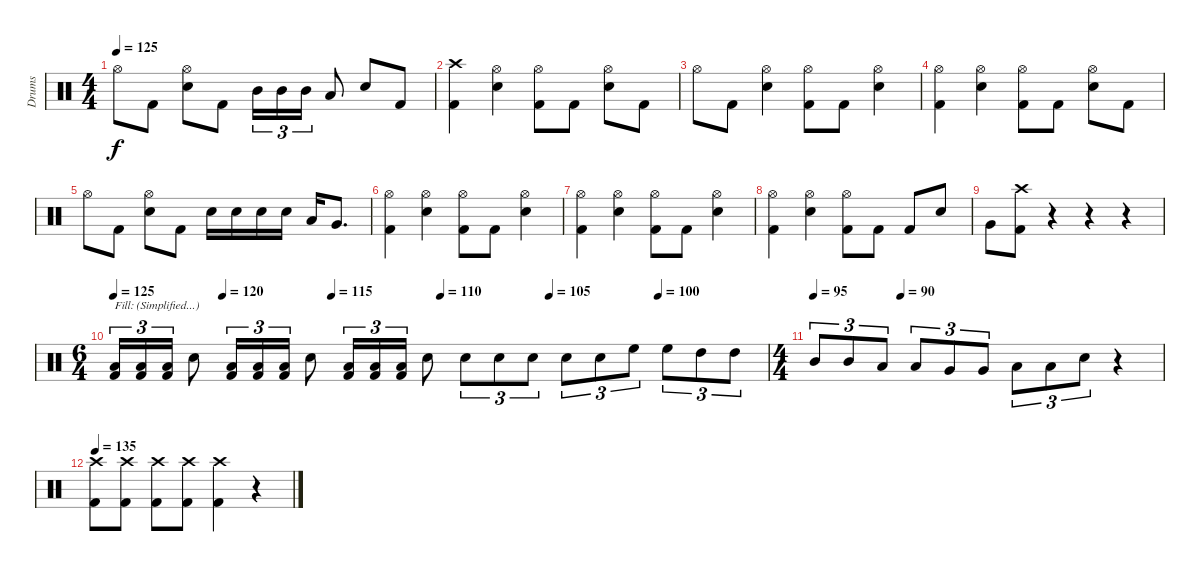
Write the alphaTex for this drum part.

\track ("Drums" "Drums") {instrument percussion}
\staff {score}
\articulation defaults
\ts (4 4)
\tempo 125
\clef neutral
\ks c "Hi-Hat (open)".8{dy f} "Kick (hit) 2".8
("Hi-Hat (open)" "Electric Snare (hit)").8 "Kick (hit) 2".8 "Mid Tom (hit)".16{tu (3 2)} "Mid Tom (hit)".16{tu (3 2)} "Mid Tom (hit)".16{tu (3 2)} "Low Tom (hit)".8 "Electric Snare (hit)".8 "Kick (hit) 2".8 |
("Crash high (hit)" "Kick (hit) 2").4 ("Hi-Hat (open)" "Electric Snare (hit)").4 ("Hi-Hat (open)" "Kick (hit) 2").8 "Kick (hit) 2".8 ("Hi-Hat (open)" "Electric Snare (hit)").8 "Kick (hit) 2".8 |
"Hi-Hat (open)".8 "Kick (hit) 2".8 ("Hi-Hat (open)" "Electric Snare (hit)").4 ("Hi-Hat (open)" "Kick (hit) 2").8 "Kick (hit) 2".8 ("Hi-Hat (open)" "Electric Snare (hit)").4 |
("Hi-Hat (open)" "Kick (hit) 2").4 ("Hi-Hat (open)" "Electric Snare (hit)").4 ("Hi-Hat (open)" "Kick (hit) 2").8 "Kick (hit) 2".8 ("Hi-Hat (open)" "Electric Snare (hit)").8 "Kick (hit) 2".8 |
"Hi-Hat (open)".8 "Kick (hit) 2".8 ("Hi-Hat (open)" "Electric Snare (hit)").8 "Kick (hit) 2".8 "Electric Snare (hit)".16 "Electric Snare (hit)".16 "Electric Snare (hit)".16 "Electric Snare (hit)".16 "Low Tom (hit)".16 "Very Low Tom (hit)".8{d} |
("Hi-Hat (open)" "Kick (hit) 2").4 ("Hi-Hat (open)" "Electric Snare (hit)").4 ("Hi-Hat (open)" "Kick (hit) 2").8 "Kick (hit) 2".8 ("Hi-Hat (open)" "Electric Snare (hit)").4 |
("Hi-Hat (open)" "Kick (hit) 2").4 ("Hi-Hat (open)" "Electric Snare (hit)").4 ("Hi-Hat (open)" "Kick (hit) 2").8 "Kick (hit) 2".8 ("Hi-Hat (open)" "Electric Snare (hit)").4 |
("Hi-Hat (open)" "Kick (hit) 2").4 ("Hi-Hat (open)" "Electric Snare (hit)").4 ("Hi-Hat (open)" "Kick (hit) 2").8 "Kick (hit) 2".8 "Kick (hit) 2".8 "Electric Snare (hit)".8 |
"Very Low Tom (hit)".8 ("Crash high (hit)" "Kick (hit) 2").8 r.4 r.4 r.4 |
\ts (6 4)
\tempo 125
\tempo (120 0.16666666666666666)
\tempo (115 0.3333333333333333)
\tempo (110 0.5)
\tempo (105 0.6666666666666666)
\tempo (100 0.8333333333333334)
("Low Tom (hit)" "Kick (hit) 2").16{tu (3 2) txt "Fill: (Simplified...)"} ("Low Tom (hit)" "Kick (hit) 2").16{tu (3 2)} ("Low Tom (hit)" "Kick (hit) 2").16{tu (3 2)} "Electric Snare (hit)".8 ("Low Tom (hit)" "Kick (hit) 2").16{tu (3 2)} ("Low Tom (hit)" "Kick (hit) 2").16{tu (3 2)} ("Low Tom (hit)" "Kick (hit) 2").16{tu (3 2)} "Electric Snare (hit)".8 ("Low Tom (hit)" "Kick (hit) 2").16{tu (3 2)} ("Low Tom (hit)" "Kick (hit) 2").16{tu (3 2)} ("Low Tom (hit)" "Kick (hit) 2").16{tu (3 2)} "Electric Snare (hit)".8 "Electric Snare (hit)".8{tu (3 2)} "Electric Snare (hit)".8{tu (3 2)} "Electric Snare (hit)".8{tu (3 2)} "Electric Snare (hit)".8{tu (3 2)} "Electric Snare (hit)".8{tu (3 2)} "High Floor Tom (hit)".8{tu (3 2)} "High Floor Tom (hit)".8{tu (3 2)} "High Tom (hit)".8{tu (3 2)} "High Tom (hit)".8{tu (3 2)} |
\ts (4 4)
\tempo 95
\tempo (90 0.25)
"Mid Tom (hit)".8{tu (3 2)} "Mid Tom (hit)".8{tu (3 2)} "Low Tom (hit)".8{tu (3 2)} "Low Tom (hit)".8{tu (3 2)} "Very Low Tom (hit)".8{tu (3 2)} "Very Low Tom (hit)".8{tu (3 2)} "Low Floor Tom (hit)".8{tu (3 2)} "Low Floor Tom (hit)".8{tu (3 2)} "Electric Snare (hit)".8{tu (3 2)} r.4 |
\tempo 135
("Crash high (hit)" "Kick (hit) 2").8 ("Crash high (hit)" "Kick (hit) 2").8 ("Crash high (hit)" "Kick (hit) 2").8 ("Crash high (hit)" "Kick (hit) 2").8 ("Crash high (hit)" "Kick (hit) 2").4 r.4
